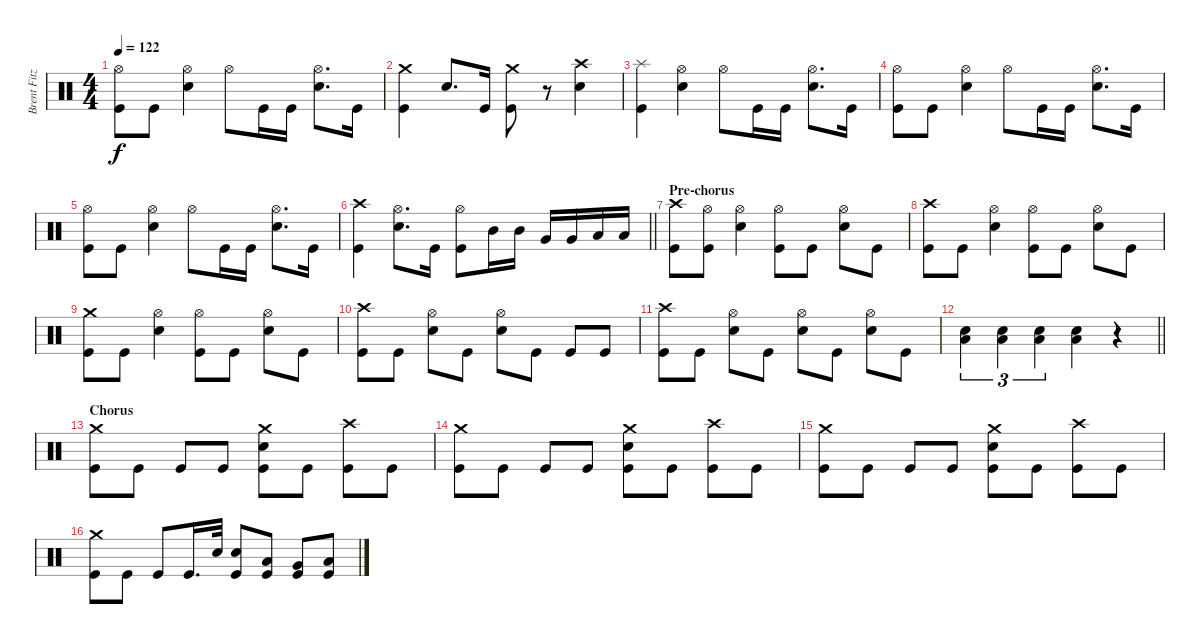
\track ("Brent Fitz" "Brent Fitz") {instrument percussion}
\staff {score}
\articulation defaults
\ts (4 4)
\tempo 122
\clef neutral
\ks c
("Kick (hit)" "Hi-Hat (open)").8{dy f} "Kick (hit)".8 ("Snare (hit) 2" "Hi-Hat (open)").4 "Hi-Hat (open)".8 "Kick (hit)".16 "Kick (hit)".16 ("Snare (hit) 2" "Hi-Hat (open)").8{d} "Kick (hit)".16 |
("Kick (hit)" "Crash medium (hit)").4 "Snare (hit) 2".8{d} "Kick (hit)".16 ("Kick (hit)" "Crash medium (hit)").8 r.8 ("Snare (hit) 2" "Crash high (hit)").4 |
("Kick (hit)" "Splash (hit)").4 ("Snare (hit) 2" "Hi-Hat (open)").4 "Hi-Hat (open)".8 "Kick (hit)".16 "Kick (hit)".16 ("Snare (hit) 2" "Hi-Hat (open)").8{d} "Kick (hit)".16 |
("Kick (hit)" "Hi-Hat (open)").8 "Kick (hit)".8 ("Snare (hit) 2" "Hi-Hat (open)").4 "Hi-Hat (open)".8 "Kick (hit)".16 "Kick (hit)".16 ("Snare (hit) 2" "Hi-Hat (open)").8{d} "Kick (hit)".16 |
("Kick (hit)" "Hi-Hat (open)").8 "Kick (hit)".8 ("Snare (hit) 2" "Hi-Hat (open)").4 "Hi-Hat (open)".8 "Kick (hit)".16 "Kick (hit)".16 ("Snare (hit) 2" "Hi-Hat (open)").8{d} "Kick (hit)".16 |
\barLineRight lightlight
("Kick (hit)" "Crash high (hit)").4 ("Snare (hit) 2" "Hi-Hat (open)").8{d} "Kick (hit)".16 ("Kick (hit)" "Hi-Hat (open)").8 "Mid Tom (hit)".16 "Mid Tom (hit)".16 "Very Low Tom (hit)".16 "Very Low Tom (hit)".16 "Low Floor Tom (hit)".16 "Low Floor Tom (hit)".16 |
\section ("" "Pre-chorus")
("Kick (hit)" "Crash high (hit)").8 ("Kick (hit)" "Hi-Hat (open)").8 ("Snare (hit) 2" "Hi-Hat (open)").4 ("Kick (hit)" "Hi-Hat (open)").8 "Kick (hit)".8 ("Snare (hit) 2" "Hi-Hat (open)").8 "Kick (hit)".8 |
("Kick (hit)" "Crash high (hit)").8 "Kick (hit)".8 ("Snare (hit) 2" "Hi-Hat (open)").4 ("Kick (hit)" "Hi-Hat (open)").8 "Kick (hit)".8 ("Snare (hit) 2" "Hi-Hat (open)").8 "Kick (hit)".8 |
("Kick (hit)" "Crash medium (hit)").8 "Kick (hit)".8 ("Snare (hit) 2" "Hi-Hat (open)").4 ("Kick (hit)" "Hi-Hat (open)").8 "Kick (hit)".8 ("Snare (hit) 2" "Hi-Hat (open)").8 "Kick (hit)".8 |
("Kick (hit)" "Crash high (hit)").8 "Kick (hit)".8 ("Snare (hit) 2" "Hi-Hat (open)").8 "Kick (hit)".8 ("Snare (hit) 2" "Hi-Hat (open)").8 "Kick (hit)".8 "Kick (hit)".8 "Kick (hit)".8 |
("Kick (hit)" "Crash high (hit)").8 "Kick (hit)".8 ("Snare (hit) 2" "Hi-Hat (open)").8 "Kick (hit)".8 ("Snare (hit) 2" "Hi-Hat (open)").8 "Kick (hit)".8 ("Snare (hit) 2" "Hi-Hat (open)").8 "Kick (hit)".8 |
\barLineRight lightlight
("Snare (hit) 2" "Low Floor Tom (hit)").4{tu (3 2)} ("Snare (hit) 2" "Low Floor Tom (hit)").4{tu (3 2)} ("Snare (hit) 2" "Low Floor Tom (hit)").4{tu (3 2)} ("Snare (hit) 2" "Low Floor Tom (hit)").4 r.4 |
\section ("" "Chorus")
("Kick (hit)" "Crash medium (hit)").8 "Kick (hit)".8 "Kick (hit)".8 "Kick (hit)".8 ("Snare (hit) 2" "Crash medium (hit)" "Kick (hit)").8 "Kick (hit)".8 ("Kick (hit)" "Crash high (hit)").8 "Kick (hit)".8 |
("Kick (hit)" "Crash medium (hit)").8 "Kick (hit)".8 "Kick (hit)".8 "Kick (hit)".8 ("Snare (hit) 2" "Crash medium (hit)" "Kick (hit)").8 "Kick (hit)".8 ("Kick (hit)" "Crash high (hit)").8 "Kick (hit)".8 |
("Kick (hit)" "Crash medium (hit)").8 "Kick (hit)".8 "Kick (hit)".8 "Kick (hit)".8 ("Snare (hit) 2" "Crash medium (hit)" "Kick (hit)").8 "Kick (hit)".8 ("Kick (hit)" "Crash high (hit)").8 "Kick (hit)".8 |
("Kick (hit)" "Crash medium (hit)").8 "Kick (hit)".8 "Kick (hit)".8 "Kick (hit)".16{d} "Snare (hit) 2".32 ("Snare (hit) 2" "Kick (hit)").8 ("Low Tom (hit)" "Kick (hit)").8 ("Very Low Tom (hit)" "Kick (hit)").8 ("Low Floor Tom (hit)" "Kick (hit)").8
